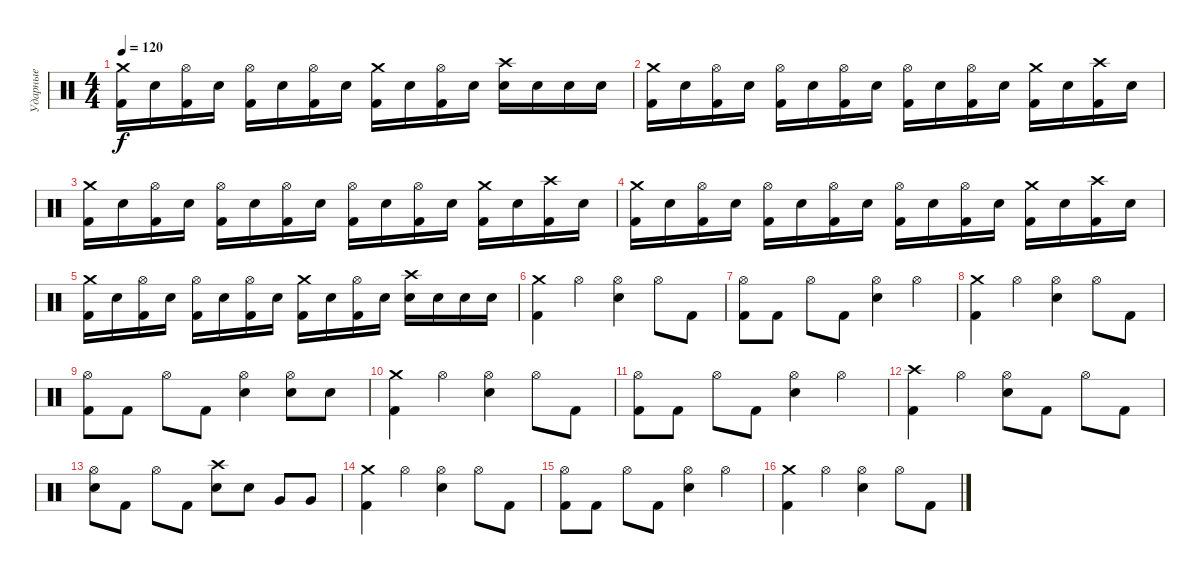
\track ("Ударные" "Ударные") {instrument percussion}
\staff {score}
\articulation defaults
\ts (4 4)
\tempo 120
\clef neutral
\ks c
("Crash medium (hit)" "Kick (hit) 2").16{dy f} "Snare (hit) 2".16 ("Hi-Hat (open)" "Kick (hit) 2").16 "Snare (hit) 2".16 ("Hi-Hat (open)" "Kick (hit) 2").16 "Snare (hit) 2".16 ("Hi-Hat (open)" "Kick (hit) 2").16 "Snare (hit) 2".16 ("Crash medium (hit)" "Kick (hit) 2").16 "Snare (hit) 2".16 ("Hi-Hat (open)" "Kick (hit) 2").16 "Snare (hit) 2".16 ("Crash high (hit)" "Snare (hit) 2").16 "Snare (hit) 2".16 "Snare (hit) 2".16 "Snare (hit) 2".16 |
("Crash medium (hit)" "Kick (hit) 2").16 "Snare (hit) 2".16 ("Hi-Hat (open)" "Kick (hit) 2").16 "Snare (hit) 2".16 ("Hi-Hat (open)" "Kick (hit) 2").16 "Snare (hit) 2".16 ("Hi-Hat (open)" "Kick (hit) 2").16 "Snare (hit) 2".16 ("Hi-Hat (open)" "Kick (hit) 2").16 "Snare (hit) 2".16 ("Hi-Hat (open)" "Kick (hit) 2").16 "Snare (hit) 2".16 ("Crash medium (hit)" "Kick (hit) 2").16 "Snare (hit) 2".16 ("Crash high (hit)" "Kick (hit) 2").16 "Snare (hit) 2".16 |
("Crash medium (hit)" "Kick (hit) 2").16 "Snare (hit) 2".16 ("Hi-Hat (open)" "Kick (hit) 2").16 "Snare (hit) 2".16 ("Hi-Hat (open)" "Kick (hit) 2").16 "Snare (hit) 2".16 ("Hi-Hat (open)" "Kick (hit) 2").16 "Snare (hit) 2".16 ("Hi-Hat (open)" "Kick (hit) 2").16 "Snare (hit) 2".16 ("Hi-Hat (open)" "Kick (hit) 2").16 "Snare (hit) 2".16 ("Crash medium (hit)" "Kick (hit) 2").16 "Snare (hit) 2".16 ("Crash high (hit)" "Kick (hit) 2").16 "Snare (hit) 2".16 |
("Crash medium (hit)" "Kick (hit) 2").16 "Snare (hit) 2".16 ("Hi-Hat (open)" "Kick (hit) 2").16 "Snare (hit) 2".16 ("Hi-Hat (open)" "Kick (hit) 2").16 "Snare (hit) 2".16 ("Hi-Hat (open)" "Kick (hit) 2").16 "Snare (hit) 2".16 ("Hi-Hat (open)" "Kick (hit) 2").16 "Snare (hit) 2".16 ("Hi-Hat (open)" "Kick (hit) 2").16 "Snare (hit) 2".16 ("Crash medium (hit)" "Kick (hit) 2").16 "Snare (hit) 2".16 ("Crash high (hit)" "Kick (hit) 2").16 "Snare (hit) 2".16 |
("Crash medium (hit)" "Kick (hit) 2").16 "Snare (hit) 2".16 ("Hi-Hat (open)" "Kick (hit) 2").16 "Snare (hit) 2".16 ("Hi-Hat (open)" "Kick (hit) 2").16 "Snare (hit) 2".16 ("Hi-Hat (open)" "Kick (hit) 2").16 "Snare (hit) 2".16 ("Crash medium (hit)" "Kick (hit) 2").16 "Snare (hit) 2".16 ("Hi-Hat (open)" "Kick (hit) 2").16 "Snare (hit) 2".16 ("Crash high (hit)" "Snare (hit) 2").16 "Snare (hit) 2".16 "Snare (hit) 2".16 "Snare (hit) 2".16 |
("Crash medium (hit)" "Kick (hit) 2").4 "Hi-Hat (open)".4 ("Hi-Hat (open)" "Snare (hit) 2").4 "Hi-Hat (open)".8 "Kick (hit) 2".8 |
("Hi-Hat (open)" "Kick (hit) 2").8 "Kick (hit) 2".8 "Hi-Hat (open)".8 "Kick (hit) 2".8 ("Hi-Hat (open)" "Snare (hit) 2").4 "Hi-Hat (open)".4 |
("Crash medium (hit)" "Kick (hit) 2").4 "Hi-Hat (open)".4 ("Hi-Hat (open)" "Snare (hit) 2").4 "Hi-Hat (open)".8 "Kick (hit) 2".8 |
("Hi-Hat (open)" "Kick (hit) 2").8 "Kick (hit) 2".8 "Hi-Hat (open)".8 "Kick (hit) 2".8 ("Hi-Hat (open)" "Snare (hit) 2").4 ("Hi-Hat (open)" "Snare (hit) 2").8 "Snare (hit) 2".8 |
("Crash medium (hit)" "Kick (hit) 2").4 "Hi-Hat (open)".4 ("Hi-Hat (open)" "Snare (hit) 2").4 "Hi-Hat (open)".8 "Kick (hit) 2".8 |
("Hi-Hat (open)" "Kick (hit) 2").8 "Kick (hit) 2".8 "Hi-Hat (open)".8 "Kick (hit) 2".8 ("Hi-Hat (open)" "Snare (hit) 2").4 "Hi-Hat (open)".4 |
("Crash high (hit)" "Kick (hit) 2").4 "Hi-Hat (open)".4 ("Hi-Hat (open)" "Snare (hit) 2").8 "Kick (hit) 2".8 "Hi-Hat (open)".8 "Kick (hit) 2".8 |
("Hi-Hat (open)" "Snare (hit) 2").8 "Kick (hit) 2".8 "Hi-Hat (open)".8 "Kick (hit) 2".8 ("Crash high (hit)" "Snare (hit) 2").8 "Snare (hit) 2".8 "Very Low Tom (hit)".8 "Very Low Tom (hit)".8 |
("Crash medium (hit)" "Kick (hit) 2").4 "Hi-Hat (open)".4 ("Hi-Hat (open)" "Snare (hit) 2").4 "Hi-Hat (open)".8 "Kick (hit) 2".8 |
("Hi-Hat (open)" "Kick (hit) 2").8 "Kick (hit) 2".8 "Hi-Hat (open)".8 "Kick (hit) 2".8 ("Hi-Hat (open)" "Snare (hit) 2").4 "Hi-Hat (open)".4 |
("Crash medium (hit)" "Kick (hit) 2").4 "Hi-Hat (open)".4 ("Hi-Hat (open)" "Snare (hit) 2").4 "Hi-Hat (open)".8 "Kick (hit) 2".8
